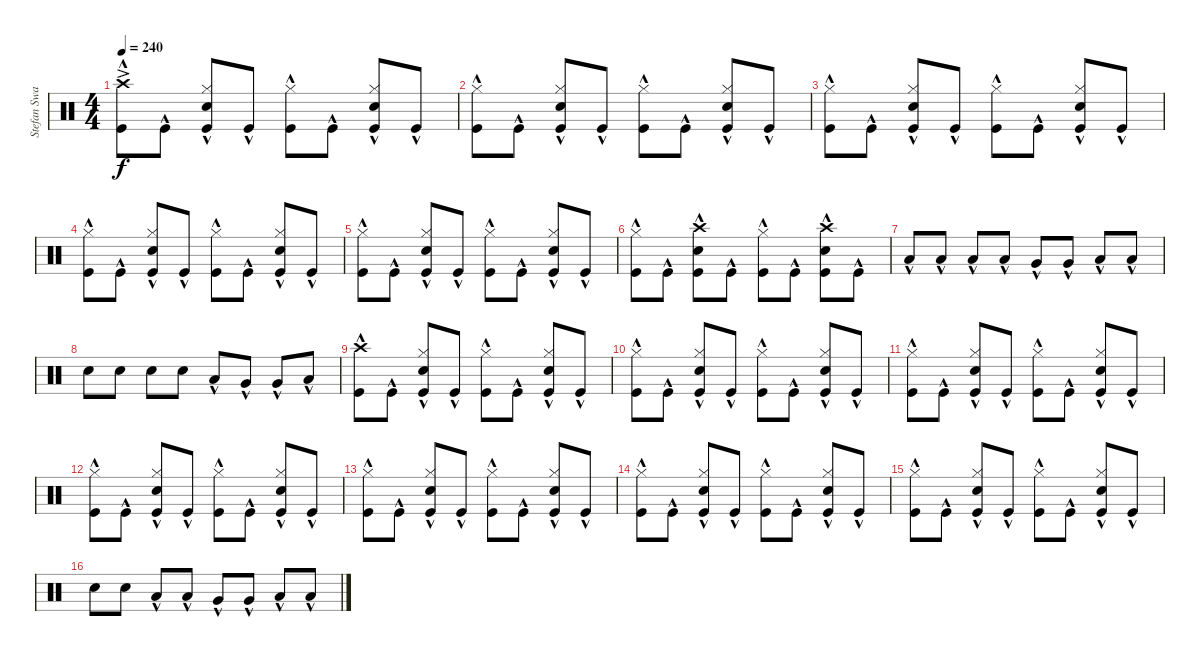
\track ("Stefan Swarztmann" "Stefan Swa") {instrument percussion}
\staff {score}
\articulation defaults
\ts (4 4)
\tempo 240
\clef neutral
\ks c
("Crash high (hit)"{ac} "Kick (hit)"{hac}).8{dy f} "Kick (hit)"{hac}.8 ("Hi-Hat (closed)" "Snare (hit) 2" "Kick (hit)"{hac}).8 "Kick (hit)"{hac}.8 ("Hi-Hat (closed)" "Kick (hit)"{hac}).8 "Kick (hit)"{hac}.8 ("Hi-Hat (closed)" "Snare (hit) 2" "Kick (hit)"{hac}).8 "Kick (hit)"{hac}.8 |
("Hi-Hat (closed)" "Kick (hit)"{hac}).8 "Kick (hit)"{hac}.8 ("Hi-Hat (closed)" "Snare (hit) 2" "Kick (hit)"{hac}).8 "Kick (hit)"{hac}.8 ("Hi-Hat (closed)" "Kick (hit)"{hac}).8 "Kick (hit)"{hac}.8 ("Hi-Hat (closed)" "Snare (hit) 2" "Kick (hit)"{hac}).8 "Kick (hit)"{hac}.8 |
("Hi-Hat (closed)" "Kick (hit)"{hac}).8 "Kick (hit)"{hac}.8 ("Hi-Hat (closed)" "Snare (hit) 2" "Kick (hit)"{hac}).8 "Kick (hit)"{hac}.8 ("Hi-Hat (closed)" "Kick (hit)"{hac}).8 "Kick (hit)"{hac}.8 ("Hi-Hat (closed)" "Snare (hit) 2" "Kick (hit)"{hac}).8 "Kick (hit)"{hac}.8 |
("Hi-Hat (closed)" "Kick (hit)"{hac}).8 "Kick (hit)"{hac}.8 ("Hi-Hat (closed)" "Snare (hit) 2" "Kick (hit)"{hac}).8 "Kick (hit)"{hac}.8 ("Hi-Hat (closed)" "Kick (hit)"{hac}).8 "Kick (hit)"{hac}.8 ("Hi-Hat (closed)" "Snare (hit) 2" "Kick (hit)"{hac}).8 "Kick (hit)"{hac}.8 |
("Hi-Hat (closed)" "Kick (hit)"{hac}).8 "Kick (hit)"{hac}.8 ("Hi-Hat (closed)" "Snare (hit) 2" "Kick (hit)"{hac}).8 "Kick (hit)"{hac}.8 ("Hi-Hat (closed)" "Kick (hit)"{hac}).8 "Kick (hit)"{hac}.8 ("Hi-Hat (closed)" "Snare (hit) 2" "Kick (hit)"{hac}).8 "Kick (hit)"{hac}.8 |
("Hi-Hat (closed)" "Kick (hit)"{hac}).8 "Kick (hit)"{hac}.8 ("Crash high (hit)" "Snare (hit) 2" "Kick (hit)"{hac}).8 "Kick (hit)"{hac}.8 ("Hi-Hat (closed)" "Kick (hit)"{hac}).8 "Kick (hit)"{hac}.8 ("Crash high (hit)" "Snare (hit) 2" "Kick (hit)"{hac}).8 "Kick (hit)"{hac}.8 |
"Low Tom (hit)"{hac}.8 "Low Tom (hit)"{hac}.8 "Low Tom (hit)"{hac}.8 "Low Tom (hit)"{hac}.8 "Very Low Tom (hit)"{hac}.8 "Very Low Tom (hit)"{hac}.8 "Low Floor Tom (hit)"{hac}.8 "Low Floor Tom (hit)"{hac}.8 |
"Snare (hit) 2".8 "Snare (hit) 2".8 "Snare (hit) 2".8 "Snare (hit) 2".8 "Low Tom (hit)"{hac}.8 "Very Low Tom (hit)"{hac}.8 "Very Low Tom (hit)"{hac}.8 "Low Floor Tom (hit)"{hac}.8 |
("Crash high (hit)"{hac} "Kick (hit)"{hac}).8 "Kick (hit)"{hac}.8 ("Hi-Hat (closed)" "Snare (hit) 2" "Kick (hit)"{hac}).8 "Kick (hit)"{hac}.8 ("Hi-Hat (closed)" "Kick (hit)"{hac}).8 "Kick (hit)"{hac}.8 ("Hi-Hat (closed)" "Snare (hit) 2" "Kick (hit)"{hac}).8 "Kick (hit)"{hac}.8 |
("Hi-Hat (closed)" "Kick (hit)"{hac}).8 "Kick (hit)"{hac}.8 ("Hi-Hat (closed)" "Snare (hit) 2" "Kick (hit)"{hac}).8 "Kick (hit)"{hac}.8 ("Hi-Hat (closed)" "Kick (hit)"{hac}).8 "Kick (hit)"{hac}.8 ("Hi-Hat (closed)" "Snare (hit) 2" "Kick (hit)"{hac}).8 "Kick (hit)"{hac}.8 |
("Hi-Hat (closed)" "Kick (hit)"{hac}).8 "Kick (hit)"{hac}.8 ("Hi-Hat (closed)" "Snare (hit) 2" "Kick (hit)"{hac}).8 "Kick (hit)"{hac}.8 ("Hi-Hat (closed)" "Kick (hit)"{hac}).8 "Kick (hit)"{hac}.8 ("Hi-Hat (closed)" "Snare (hit) 2" "Kick (hit)"{hac}).8 "Kick (hit)"{hac}.8 |
("Hi-Hat (closed)" "Kick (hit)"{hac}).8 "Kick (hit)"{hac}.8 ("Hi-Hat (closed)" "Snare (hit) 2" "Kick (hit)"{hac}).8 "Kick (hit)"{hac}.8 ("Hi-Hat (closed)" "Kick (hit)"{hac}).8 "Kick (hit)"{hac}.8 ("Hi-Hat (closed)" "Snare (hit) 2" "Kick (hit)"{hac}).8 "Kick (hit)"{hac}.8 |
("Hi-Hat (closed)" "Kick (hit)"{hac}).8 "Kick (hit)"{hac}.8 ("Hi-Hat (closed)" "Snare (hit) 2" "Kick (hit)"{hac}).8 "Kick (hit)"{hac}.8 ("Hi-Hat (closed)" "Kick (hit)"{hac}).8 "Kick (hit)"{hac}.8 ("Hi-Hat (closed)" "Snare (hit) 2" "Kick (hit)"{hac}).8 "Kick (hit)"{hac}.8 |
("Hi-Hat (closed)" "Kick (hit)"{hac}).8 "Kick (hit)"{hac}.8 ("Hi-Hat (closed)" "Snare (hit) 2" "Kick (hit)"{hac}).8 "Kick (hit)"{hac}.8 ("Hi-Hat (closed)" "Kick (hit)"{hac}).8 "Kick (hit)"{hac}.8 ("Hi-Hat (closed)" "Snare (hit) 2" "Kick (hit)"{hac}).8 "Kick (hit)"{hac}.8 |
("Hi-Hat (closed)" "Kick (hit)"{hac}).8 "Kick (hit)"{hac}.8 ("Hi-Hat (closed)" "Snare (hit) 2" "Kick (hit)"{hac}).8 "Kick (hit)"{hac}.8 ("Hi-Hat (closed)" "Kick (hit)"{hac}).8 "Kick (hit)"{hac}.8 ("Hi-Hat (closed)" "Snare (hit) 2" "Kick (hit)"{hac}).8 "Kick (hit)"{hac}.8 |
"Snare (hit) 2".8 "Snare (hit) 2".8 "Low Tom (hit)"{hac}.8 "Low Tom (hit)"{hac}.8 "Very Low Tom (hit)"{hac}.8 "Very Low Tom (hit)"{hac}.8 "Low Floor Tom (hit)"{hac}.8 "Low Floor Tom (hit)"{hac}.8
